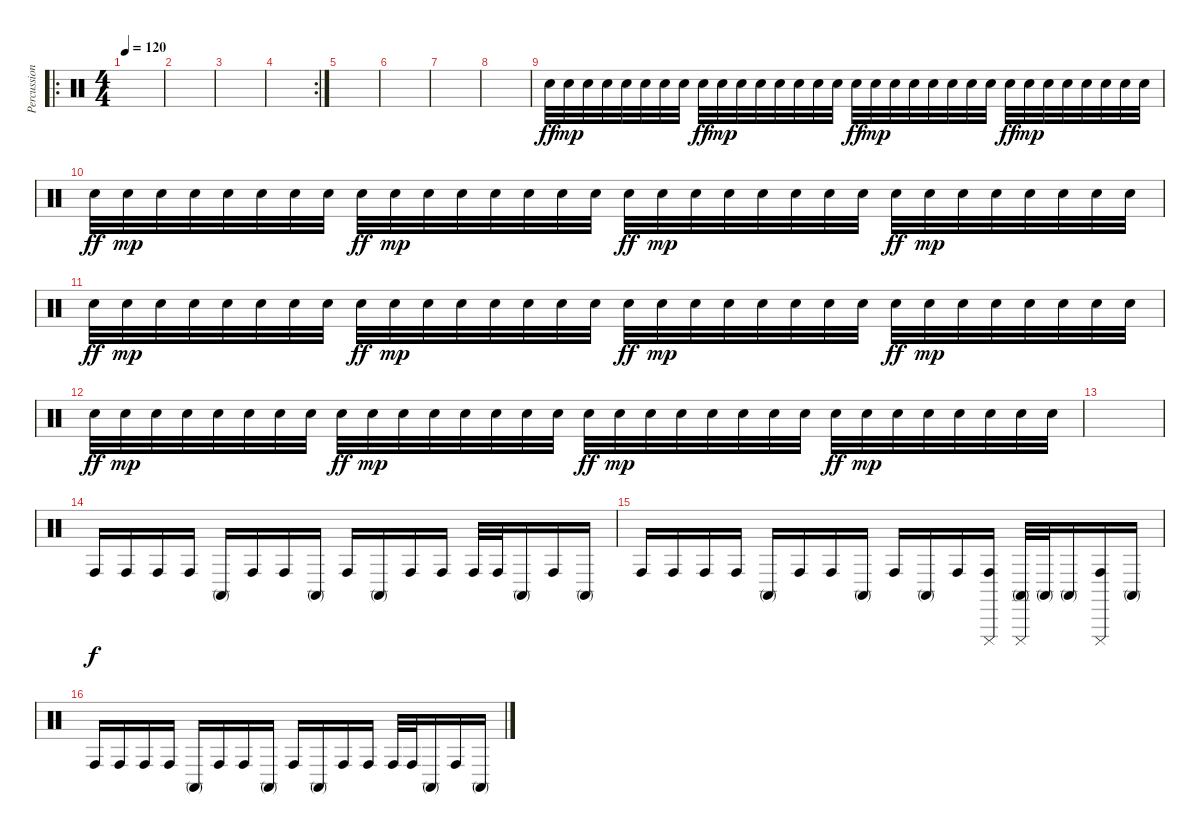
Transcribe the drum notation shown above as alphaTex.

\track ("Percussion" "Percussion") {instrument percussion}
\staff {score}
\articulation defaults
\ro
\ts (4 4)
\tempo 120
\clef neutral
\ks c
|
|
|
\rc 2
|
|
|
|
|
"Snare (hit) 2".32{dy ff volume 6} "Snare (hit) 2".32{dy mp} "Snare (hit) 2".32 "Snare (hit) 2".32 "Snare (hit) 2".32 "Snare (hit) 2".32 "Snare (hit) 2".32 "Snare (hit) 2".32 "Snare (hit) 2".32{dy ff} "Snare (hit) 2".32{dy mp} "Snare (hit) 2".32 "Snare (hit) 2".32 "Snare (hit) 2".32 "Snare (hit) 2".32 "Snare (hit) 2".32 "Snare (hit) 2".32 "Snare (hit) 2".32{dy ff} "Snare (hit) 2".32{dy mp} "Snare (hit) 2".32 "Snare (hit) 2".32 "Snare (hit) 2".32 "Snare (hit) 2".32 "Snare (hit) 2".32 "Snare (hit) 2".32 "Snare (hit) 2".32{dy ff} "Snare (hit) 2".32{dy mp} "Snare (hit) 2".32 "Snare (hit) 2".32 "Snare (hit) 2".32 "Snare (hit) 2".32 "Snare (hit) 2".32 "Snare (hit) 2".32 |
"Snare (hit) 2".32{dy ff} "Snare (hit) 2".32{dy mp} "Snare (hit) 2".32 "Snare (hit) 2".32 "Snare (hit) 2".32 "Snare (hit) 2".32 "Snare (hit) 2".32 "Snare (hit) 2".32 "Snare (hit) 2".32{dy ff} "Snare (hit) 2".32{dy mp} "Snare (hit) 2".32 "Snare (hit) 2".32 "Snare (hit) 2".32 "Snare (hit) 2".32 "Snare (hit) 2".32 "Snare (hit) 2".32 "Snare (hit) 2".32{dy ff} "Snare (hit) 2".32{dy mp} "Snare (hit) 2".32 "Snare (hit) 2".32 "Snare (hit) 2".32 "Snare (hit) 2".32 "Snare (hit) 2".32 "Snare (hit) 2".32 "Snare (hit) 2".32{dy ff} "Snare (hit) 2".32{dy mp} "Snare (hit) 2".32 "Snare (hit) 2".32 "Snare (hit) 2".32 "Snare (hit) 2".32 "Snare (hit) 2".32 "Snare (hit) 2".32 |
"Snare (hit) 2".32{dy ff volume 12} "Snare (hit) 2".32{dy mp} "Snare (hit) 2".32 "Snare (hit) 2".32 "Snare (hit) 2".32 "Snare (hit) 2".32 "Snare (hit) 2".32 "Snare (hit) 2".32 "Snare (hit) 2".32{dy ff} "Snare (hit) 2".32{dy mp} "Snare (hit) 2".32 "Snare (hit) 2".32 "Snare (hit) 2".32 "Snare (hit) 2".32 "Snare (hit) 2".32 "Snare (hit) 2".32 "Snare (hit) 2".32{dy ff} "Snare (hit) 2".32{dy mp} "Snare (hit) 2".32 "Snare (hit) 2".32 "Snare (hit) 2".32 "Snare (hit) 2".32 "Snare (hit) 2".32 "Snare (hit) 2".32 "Snare (hit) 2".32{dy ff} "Snare (hit) 2".32{dy mp} "Snare (hit) 2".32 "Snare (hit) 2".32 "Snare (hit) 2".32 "Snare (hit) 2".32 "Snare (hit) 2".32 "Snare (hit) 2".32 |
"Snare (hit) 2".32{dy ff} "Snare (hit) 2".32{dy mp} "Snare (hit) 2".32 "Snare (hit) 2".32 "Snare (hit) 2".32 "Snare (hit) 2".32 "Snare (hit) 2".32 "Snare (hit) 2".32 "Snare (hit) 2".32{dy ff} "Snare (hit) 2".32{dy mp} "Snare (hit) 2".32 "Snare (hit) 2".32 "Snare (hit) 2".32 "Snare (hit) 2".32 "Snare (hit) 2".32 "Snare (hit) 2".32 "Snare (hit) 2".32{dy ff} "Snare (hit) 2".32{dy mp} "Snare (hit) 2".32 "Snare (hit) 2".32 "Snare (hit) 2".32 "Snare (hit) 2".32 "Snare (hit) 2".32 "Snare (hit) 2".32 "Snare (hit) 2".32{dy ff} "Snare (hit) 2".32{dy mp} "Snare (hit) 2".32 "Snare (hit) 2".32 "Snare (hit) 2".32 "Snare (hit) 2".32 "Snare (hit) 2".32 "Snare (hit) 2".32 |
|
"Conga high (hit)".16{dy f} "Conga high (hit)".16 "Conga high (hit)".16 "Conga high (hit)".16 "Conga high (mute)".16 "Conga high (hit)".16 "Conga high (hit)".16 "Conga high (mute)".16 "Conga high (hit)".16 "Conga high (mute)".16 "Conga high (hit)".16 "Conga high (hit)".16 "Conga high (hit)".32 "Conga high (hit)".32 "Conga high (mute)".16 "Conga high (hit)".16 "Conga high (mute)".16 |
"Conga high (hit)".16 "Conga high (hit)".16 "Conga high (hit)".16 "Conga high (hit)".16 "Conga high (mute)".16 "Conga high (hit)".16 "Conga high (hit)".16 "Conga high (mute)".16 "Conga high (hit)".16 "Conga high (mute)".16 "Conga high (hit)".16 ("Cuica (mute)" "Conga high (hit)").16 ("Cuica (mute)" "Conga high (mute)").32 "Conga high (mute)".32 "Conga high (mute)".16 ("Cuica (mute)" "Conga high (hit)").16 "Conga high (mute)".16 |
"Conga high (hit)".16 "Conga high (hit)".16 "Conga high (hit)".16 "Conga high (hit)".16 "Conga high (mute)".16 "Conga high (hit)".16 "Conga high (hit)".16 "Conga high (mute)".16 "Conga high (hit)".16 "Conga high (mute)".16 "Conga high (hit)".16 "Conga high (hit)".16 "Conga high (hit)".32 "Conga high (hit)".32 "Conga high (mute)".16 "Conga high (hit)".16 "Conga high (mute)".16
